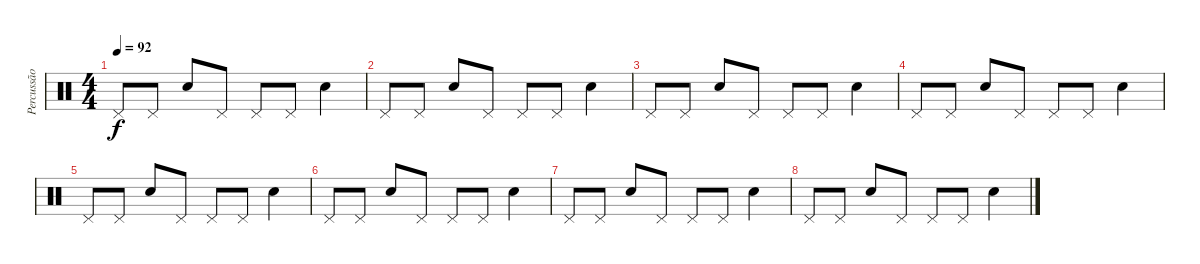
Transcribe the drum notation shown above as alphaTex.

\track ("Percussão" "Percussão") {instrument percussion}
\staff {score}
\articulation defaults
\ts (4 4)
\tempo 92
\clef neutral
\ks c "Pedal Hi-Hat (hit)".8{dy f} "Pedal Hi-Hat (hit)".8 "Electric Snare (hit)".8 "Pedal Hi-Hat (hit)".8 "Pedal Hi-Hat (hit)".8 "Pedal Hi-Hat (hit)".8 "Electric Snare (hit)".4
|
"Pedal Hi-Hat (hit)".8 "Pedal Hi-Hat (hit)".8 "Electric Snare (hit)".8 "Pedal Hi-Hat (hit)".8 "Pedal Hi-Hat (hit)".8 "Pedal Hi-Hat (hit)".8 "Electric Snare (hit)".4 |
"Pedal Hi-Hat (hit)".8 "Pedal Hi-Hat (hit)".8 "Electric Snare (hit)".8 "Pedal Hi-Hat (hit)".8 "Pedal Hi-Hat (hit)".8 "Pedal Hi-Hat (hit)".8 "Electric Snare (hit)".4 |
"Pedal Hi-Hat (hit)".8 "Pedal Hi-Hat (hit)".8 "Electric Snare (hit)".8 "Pedal Hi-Hat (hit)".8 "Pedal Hi-Hat (hit)".8 "Pedal Hi-Hat (hit)".8 "Electric Snare (hit)".4 |
"Pedal Hi-Hat (hit)".8 "Pedal Hi-Hat (hit)".8 "Electric Snare (hit)".8 "Pedal Hi-Hat (hit)".8 "Pedal Hi-Hat (hit)".8 "Pedal Hi-Hat (hit)".8 "Electric Snare (hit)".4 |
"Pedal Hi-Hat (hit)".8 "Pedal Hi-Hat (hit)".8 "Electric Snare (hit)".8 "Pedal Hi-Hat (hit)".8 "Pedal Hi-Hat (hit)".8 "Pedal Hi-Hat (hit)".8 "Electric Snare (hit)".4 |
"Pedal Hi-Hat (hit)".8 "Pedal Hi-Hat (hit)".8 "Electric Snare (hit)".8 "Pedal Hi-Hat (hit)".8 "Pedal Hi-Hat (hit)".8 "Pedal Hi-Hat (hit)".8 "Electric Snare (hit)".4 |
"Pedal Hi-Hat (hit)".8 "Pedal Hi-Hat (hit)".8 "Electric Snare (hit)".8 "Pedal Hi-Hat (hit)".8 "Pedal Hi-Hat (hit)".8 "Pedal Hi-Hat (hit)".8 "Electric Snare (hit)".4
